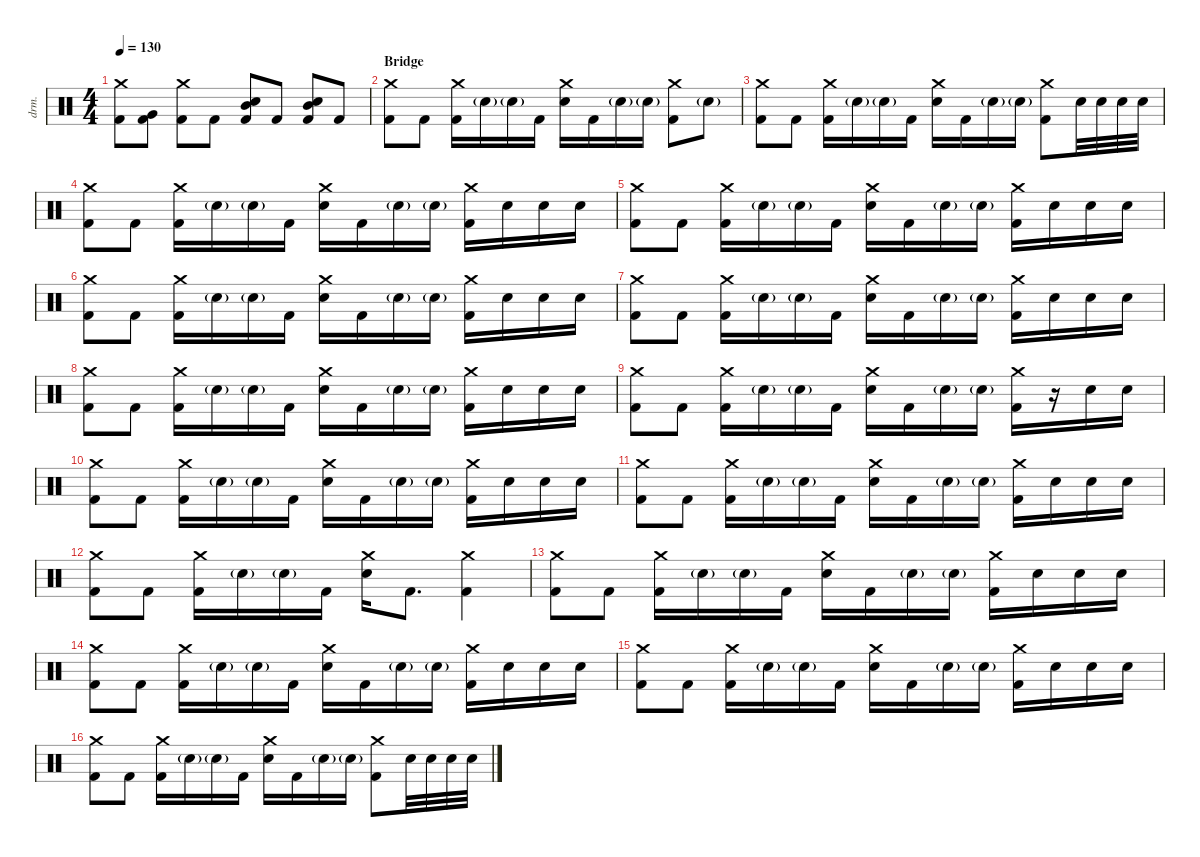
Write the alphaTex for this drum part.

\defaultSystemsLayout 4
\hideDynamics
\bracketExtendMode nobrackets
\track ("Drums - Šimon" "drm.") {instrument percussion}
\staff {score}
\articulation defaults
\ts (4 4)
\tempo 130
\clef neutral
\ks c
("Kick (hit) 2" "Crash medium (hit)").8{dy ff beam Down} ("Kick (hit) 2" "Very Low Tom (hit)").8{beam Down} ("Kick (hit) 2" "Crash medium (hit)").8{beam Down} "Kick (hit) 2".8{beam Down} ("Kick (hit) 2" "Snare (hit) 2" "Mid Tom (hit)").8{beam Up} "Kick (hit) 2".8{beam Up} ("Kick (hit) 2" "Mid Tom (hit)" "Snare (hit) 2").8{beam Up} "Kick (hit) 2".8{beam Up} |
\section ("" "Bridge")
("Kick (hit) 2" "Crash medium (hit)").8{beam Down} "Kick (hit) 2".8{beam Down} ("Kick (hit) 2" "Crash medium (hit)").16{beam Down} "Snare (hit) 2"{g}.16{beam Down} "Snare (hit) 2"{g}.16{beam Down} "Kick (hit) 2".16{beam Down} ("Snare (hit) 2" "Crash medium (hit)").16{beam Down} "Kick (hit) 2".16{beam Down} "Snare (hit) 2"{g}.16{beam Down} "Snare (hit) 2"{g}.16{beam Down} ("Kick (hit) 2" "Crash medium (hit)").8{beam Down} "Snare (hit) 2"{g}.8{beam Down} |
("Kick (hit) 2" "Crash medium (hit)").8{beam Down} "Kick (hit) 2".8{beam Down} ("Kick (hit) 2" "Crash medium (hit)").16{beam Down} "Snare (hit) 2"{g}.16{beam Down} "Snare (hit) 2"{g}.16{beam Down} "Kick (hit) 2".16{beam Down} ("Snare (hit) 2" "Crash medium (hit)").16{beam Down} "Kick (hit) 2".16{beam Down} "Snare (hit) 2"{g}.16{beam Down} "Snare (hit) 2"{g}.16{beam Down} ("Kick (hit) 2" "Crash medium (hit)").8{beam Down} "Snare (hit) 2".32{beam Down} "Snare (hit) 2".32{beam Down} "Snare (hit) 2".32{beam Down} "Snare (hit) 2".32{beam Down} |
("Kick (hit) 2" "Crash medium (hit)").8{beam Down} "Kick (hit) 2".8{beam Down} ("Kick (hit) 2" "Crash medium (hit)").16{beam Down} "Snare (hit) 2"{g}.16{beam Down} "Snare (hit) 2"{g}.16{beam Down} "Kick (hit) 2".16{beam Down} ("Snare (hit) 2" "Crash medium (hit)").16{beam Down} "Kick (hit) 2".16{beam Down} "Snare (hit) 2"{g}.16{beam Down} "Snare (hit) 2"{g}.16{beam Down} ("Kick (hit) 2" "Crash medium (hit)").16{beam Down} "Snare (hit) 2".16{beam Down} "Snare (hit) 2".16{beam Down} "Snare (hit) 2".16{beam Down} |
("Kick (hit) 2" "Crash medium (hit)").8{beam Down} "Kick (hit) 2".8{beam Down} ("Kick (hit) 2" "Crash medium (hit)").16{beam Down} "Snare (hit) 2"{g}.16{beam Down} "Snare (hit) 2"{g}.16{beam Down} "Kick (hit) 2".16{beam Down} ("Snare (hit) 2" "Crash medium (hit)").16{beam Down} "Kick (hit) 2".16{beam Down} "Snare (hit) 2"{g}.16{beam Down} "Snare (hit) 2"{g}.16{beam Down} ("Kick (hit) 2" "Crash medium (hit)").16{beam Down} "Snare (hit) 2".16{beam Down} "Snare (hit) 2".16{beam Down} "Snare (hit) 2".16{beam Down} |
("Kick (hit) 2" "Crash medium (hit)").8{beam Down} "Kick (hit) 2".8{beam Down} ("Kick (hit) 2" "Crash medium (hit)").16{beam Down} "Snare (hit) 2"{g}.16{beam Down} "Snare (hit) 2"{g}.16{beam Down} "Kick (hit) 2".16{beam Down} ("Snare (hit) 2" "Crash medium (hit)").16{beam Down} "Kick (hit) 2".16{beam Down} "Snare (hit) 2"{g}.16{beam Down} "Snare (hit) 2"{g}.16{beam Down} ("Kick (hit) 2" "Crash medium (hit)").16{beam Down} "Snare (hit) 2".16{beam Down} "Snare (hit) 2".16{beam Down} "Snare (hit) 2".16{beam Down} |
("Kick (hit) 2" "Crash medium (hit)").8{beam Down} "Kick (hit) 2".8{beam Down} ("Kick (hit) 2" "Crash medium (hit)").16{beam Down} "Snare (hit) 2"{g}.16{beam Down} "Snare (hit) 2"{g}.16{beam Down} "Kick (hit) 2".16{beam Down} ("Snare (hit) 2" "Crash medium (hit)").16{beam Down} "Kick (hit) 2".16{beam Down} "Snare (hit) 2"{g}.16{beam Down} "Snare (hit) 2"{g}.16{beam Down} ("Kick (hit) 2" "Crash medium (hit)").16{beam Down} "Snare (hit) 2".16{beam Down} "Snare (hit) 2".16{beam Down} "Snare (hit) 2".16{beam Down} |
("Kick (hit) 2" "Crash medium (hit)").8{beam Down} "Kick (hit) 2".8{beam Down} ("Kick (hit) 2" "Crash medium (hit)").16{beam Down} "Snare (hit) 2"{g}.16{beam Down} "Snare (hit) 2"{g}.16{beam Down} "Kick (hit) 2".16{beam Down} ("Snare (hit) 2" "Crash medium (hit)").16{beam Down} "Kick (hit) 2".16{beam Down} "Snare (hit) 2"{g}.16{beam Down} "Snare (hit) 2"{g}.16{beam Down} ("Kick (hit) 2" "Crash medium (hit)").16{beam Down} "Snare (hit) 2".16{beam Down} "Snare (hit) 2".16{beam Down} "Snare (hit) 2".16{beam Down} |
("Kick (hit) 2" "Crash medium (hit)").8{beam Down} "Kick (hit) 2".8{beam Down} ("Kick (hit) 2" "Crash medium (hit)").16{beam Down} "Snare (hit) 2"{g}.16{beam Down} "Snare (hit) 2"{g}.16{beam Down} "Kick (hit) 2".16{beam Down} ("Snare (hit) 2" "Crash medium (hit)").16{beam Down} "Kick (hit) 2".16{beam Down} "Snare (hit) 2"{g}.16{beam Down} "Snare (hit) 2"{g}.16{beam Down} ("Kick (hit) 2" "Crash medium (hit)").16{beam Down} r.16{beam Down} "Snare (hit) 2".16{beam Down} "Snare (hit) 2".16{beam Down} |
("Kick (hit) 2" "Crash medium (hit)").8{beam Down} "Kick (hit) 2".8{beam Down} ("Kick (hit) 2" "Crash medium (hit)").16{beam Down} "Snare (hit) 2"{g}.16{beam Down} "Snare (hit) 2"{g}.16{beam Down} "Kick (hit) 2".16{beam Down} ("Snare (hit) 2" "Crash medium (hit)").16{beam Down} "Kick (hit) 2".16{beam Down} "Snare (hit) 2"{g}.16{beam Down} "Snare (hit) 2"{g}.16{beam Down} ("Kick (hit) 2" "Crash medium (hit)").16{beam Down} "Snare (hit) 2".16{beam Down} "Snare (hit) 2".16{beam Down} "Snare (hit) 2".16{beam Down} |
("Kick (hit) 2" "Crash medium (hit)").8{beam Down} "Kick (hit) 2".8{beam Down} ("Kick (hit) 2" "Crash medium (hit)").16{beam Down} "Snare (hit) 2"{g}.16{beam Down} "Snare (hit) 2"{g}.16{beam Down} "Kick (hit) 2".16{beam Down} ("Snare (hit) 2" "Crash medium (hit)").16{beam Down} "Kick (hit) 2".16{beam Down} "Snare (hit) 2"{g}.16{beam Down} "Snare (hit) 2"{g}.16{beam Down} ("Kick (hit) 2" "Crash medium (hit)").16{beam Down} "Snare (hit) 2".16{beam Down} "Snare (hit) 2".16{beam Down} "Snare (hit) 2".16{beam Down} |
("Kick (hit) 2" "Crash medium (hit)").8{beam Down} "Kick (hit) 2".8{beam Down} ("Kick (hit) 2" "Crash medium (hit)").16{beam Down} "Snare (hit) 2"{g}.16{beam Down} "Snare (hit) 2"{g}.16{beam Down} "Kick (hit) 2".16{beam Down} ("Snare (hit) 2" "Crash medium (hit)").16{beam Down} "Kick (hit) 2".8{d beam Down} ("Kick (hit) 2" "Crash medium (hit)").4{beam Down} |
("Kick (hit) 2" "Crash medium (hit)").8{beam Down} "Kick (hit) 2".8{beam Down} ("Kick (hit) 2" "Crash medium (hit)").16{beam Down} "Snare (hit) 2"{g}.16{beam Down} "Snare (hit) 2"{g}.16{beam Down} "Kick (hit) 2".16{beam Down} ("Snare (hit) 2" "Crash medium (hit)").16{beam Down} "Kick (hit) 2".16{beam Down} "Snare (hit) 2"{g}.16{beam Down} "Snare (hit) 2"{g}.16{beam Down} ("Kick (hit) 2" "Crash medium (hit)").16{beam Down} "Snare (hit) 2".16{beam Down} "Snare (hit) 2".16{beam Down} "Snare (hit) 2".16{beam Down} |
("Kick (hit) 2" "Crash medium (hit)").8{beam Down} "Kick (hit) 2".8{beam Down} ("Kick (hit) 2" "Crash medium (hit)").16{beam Down} "Snare (hit) 2"{g}.16{beam Down} "Snare (hit) 2"{g}.16{beam Down} "Kick (hit) 2".16{beam Down} ("Snare (hit) 2" "Crash medium (hit)").16{beam Down} "Kick (hit) 2".16{beam Down} "Snare (hit) 2"{g}.16{beam Down} "Snare (hit) 2"{g}.16{beam Down} ("Kick (hit) 2" "Crash medium (hit)").16{beam Down} "Snare (hit) 2".16{beam Down} "Snare (hit) 2".16{beam Down} "Snare (hit) 2".16{beam Down} |
("Kick (hit) 2" "Crash medium (hit)").8{beam Down} "Kick (hit) 2".8{beam Down} ("Kick (hit) 2" "Crash medium (hit)").16{beam Down} "Snare (hit) 2"{g}.16{beam Down} "Snare (hit) 2"{g}.16{beam Down} "Kick (hit) 2".16{beam Down} ("Snare (hit) 2" "Crash medium (hit)").16{beam Down} "Kick (hit) 2".16{beam Down} "Snare (hit) 2"{g}.16{beam Down} "Snare (hit) 2"{g}.16{beam Down} ("Kick (hit) 2" "Crash medium (hit)").16{beam Down} "Snare (hit) 2".16{beam Down} "Snare (hit) 2".16{beam Down} "Snare (hit) 2".16{beam Down} |
("Kick (hit) 2" "Crash medium (hit)").8{beam Down} "Kick (hit) 2".8{beam Down} ("Kick (hit) 2" "Crash medium (hit)").16{beam Down} "Snare (hit) 2"{g}.16{beam Down} "Snare (hit) 2"{g}.16{beam Down} "Kick (hit) 2".16{beam Down} ("Snare (hit) 2" "Crash medium (hit)").16{beam Down} "Kick (hit) 2".16{beam Down} "Snare (hit) 2"{g}.16{beam Down} "Snare (hit) 2"{g}.16{beam Down} ("Kick (hit) 2" "Crash medium (hit)").8{beam Down} "Snare (hit) 2".32{beam Down} "Snare (hit) 2".32{beam Down} "Snare (hit) 2".32{beam Down} "Snare (hit) 2".32{beam Down}
